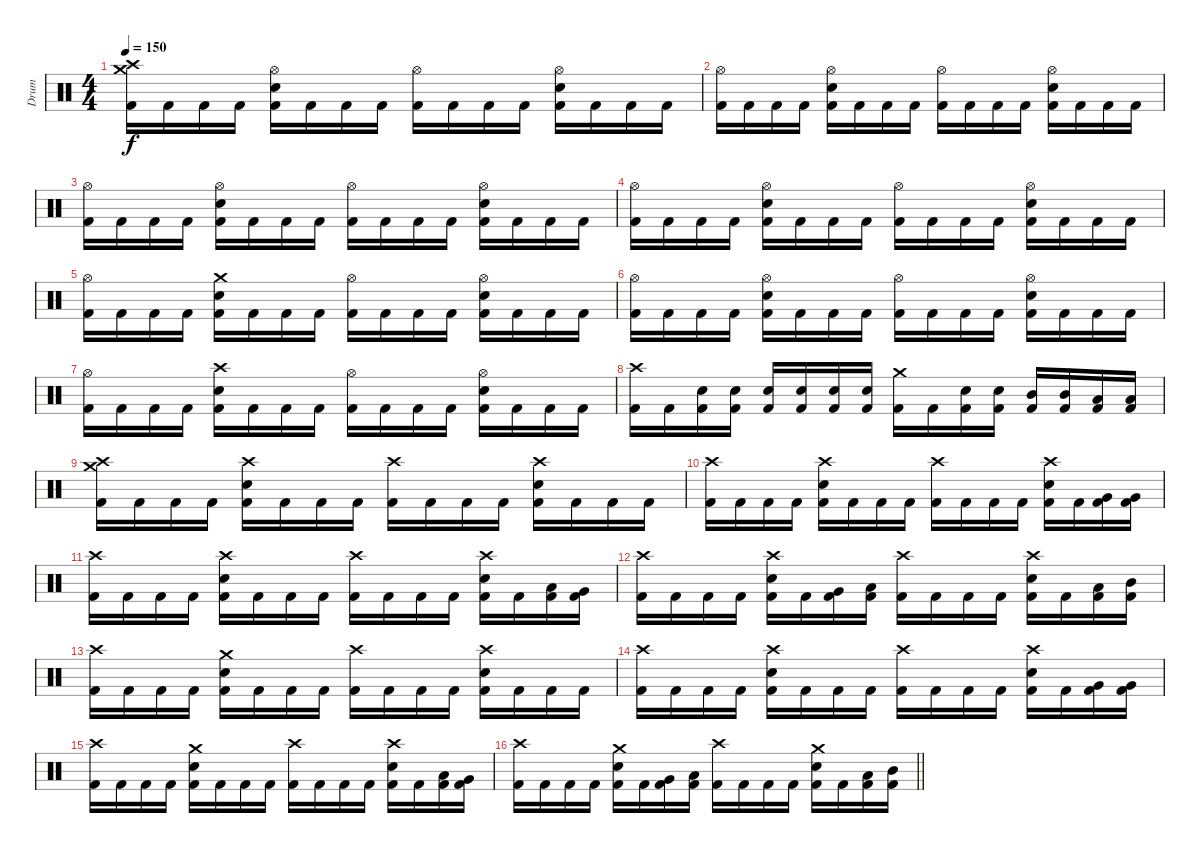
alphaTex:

\track ("Drum" "Drum") {instrument percussion}
\staff {score}
\articulation defaults
\ts (4 4)
\section ("" "")
\tempo 150
\clef neutral
\ks c
("Crash high (hit)" "Crash medium (hit)" "Kick (hit) 2").16{dy f} "Kick (hit) 2".16 "Kick (hit) 2".16 "Kick (hit) 2".16 ("Snare (hit) 2" "Hi-Hat (open)" "Kick (hit) 2").16 "Kick (hit) 2".16 "Kick (hit) 2".16 "Kick (hit) 2".16 ("Hi-Hat (open)" "Kick (hit) 2").16 "Kick (hit) 2".16 "Kick (hit) 2".16 "Kick (hit) 2".16 ("Snare (hit) 2" "Hi-Hat (open)" "Kick (hit) 2").16 "Kick (hit) 2".16 "Kick (hit) 2".16 "Kick (hit) 2".16 |
("Hi-Hat (open)" "Kick (hit) 2").16 "Kick (hit) 2".16 "Kick (hit) 2".16 "Kick (hit) 2".16 ("Snare (hit) 2" "Hi-Hat (open)" "Kick (hit) 2").16 "Kick (hit) 2".16 "Kick (hit) 2".16 "Kick (hit) 2".16 ("Hi-Hat (open)" "Kick (hit) 2").16 "Kick (hit) 2".16 "Kick (hit) 2".16 "Kick (hit) 2".16 ("Snare (hit) 2" "Hi-Hat (open)" "Kick (hit) 2").16 "Kick (hit) 2".16 "Kick (hit) 2".16 "Kick (hit) 2".16 |
("Hi-Hat (open)" "Kick (hit) 2").16 "Kick (hit) 2".16 "Kick (hit) 2".16 "Kick (hit) 2".16 ("Snare (hit) 2" "Hi-Hat (open)" "Kick (hit) 2").16 "Kick (hit) 2".16 "Kick (hit) 2".16 "Kick (hit) 2".16 ("Hi-Hat (open)" "Kick (hit) 2").16 "Kick (hit) 2".16 "Kick (hit) 2".16 "Kick (hit) 2".16 ("Snare (hit) 2" "Hi-Hat (open)" "Kick (hit) 2").16 "Kick (hit) 2".16 "Kick (hit) 2".16 "Kick (hit) 2".16 |
("Hi-Hat (open)" "Kick (hit) 2").16 "Kick (hit) 2".16 "Kick (hit) 2".16 "Kick (hit) 2".16 ("Snare (hit) 2" "Hi-Hat (open)" "Kick (hit) 2").16 "Kick (hit) 2".16 "Kick (hit) 2".16 "Kick (hit) 2".16 ("Hi-Hat (open)" "Kick (hit) 2").16 "Kick (hit) 2".16 "Kick (hit) 2".16 "Kick (hit) 2".16 ("Snare (hit) 2" "Hi-Hat (open)" "Kick (hit) 2").16 "Kick (hit) 2".16 "Kick (hit) 2".16 "Kick (hit) 2".16 |
("Hi-Hat (open)" "Kick (hit) 2").16 "Kick (hit) 2".16 "Kick (hit) 2".16 "Kick (hit) 2".16 ("Snare (hit) 2" "Crash medium (hit)" "Kick (hit) 2").16 "Kick (hit) 2".16 "Kick (hit) 2".16 "Kick (hit) 2".16 ("Hi-Hat (open)" "Kick (hit) 2").16 "Kick (hit) 2".16 "Kick (hit) 2".16 "Kick (hit) 2".16 ("Snare (hit) 2" "Hi-Hat (open)" "Kick (hit) 2").16 "Kick (hit) 2".16 "Kick (hit) 2".16 "Kick (hit) 2".16 |
("Hi-Hat (open)" "Kick (hit) 2").16 "Kick (hit) 2".16 "Kick (hit) 2".16 "Kick (hit) 2".16 ("Snare (hit) 2" "Hi-Hat (open)" "Kick (hit) 2").16 "Kick (hit) 2".16 "Kick (hit) 2".16 "Kick (hit) 2".16 ("Hi-Hat (open)" "Kick (hit) 2").16 "Kick (hit) 2".16 "Kick (hit) 2".16 "Kick (hit) 2".16 ("Snare (hit) 2" "Hi-Hat (open)" "Kick (hit) 2").16 "Kick (hit) 2".16 "Kick (hit) 2".16 "Kick (hit) 2".16 |
("Hi-Hat (open)" "Kick (hit) 2").16 "Kick (hit) 2".16 "Kick (hit) 2".16 "Kick (hit) 2".16 ("Snare (hit) 2" "Crash high (hit)" "Kick (hit) 2").16 "Kick (hit) 2".16 "Kick (hit) 2".16 "Kick (hit) 2".16 ("Hi-Hat (open)" "Kick (hit) 2").16 "Kick (hit) 2".16 "Kick (hit) 2".16 "Kick (hit) 2".16 ("Snare (hit) 2" "Hi-Hat (open)" "Kick (hit) 2").16 "Kick (hit) 2".16 "Kick (hit) 2".16 "Kick (hit) 2".16 |
("Crash high (hit)" "Kick (hit) 2").16 "Kick (hit) 2".16 ("Snare (hit) 2" "Kick (hit) 2").16 ("Snare (hit) 2" "Kick (hit) 2").16 ("Snare (hit) 2" "Kick (hit) 2").16 ("Snare (hit) 2" "Kick (hit) 2").16 ("Snare (hit) 2" "Kick (hit) 2").16 ("Snare (hit) 2" "Kick (hit) 2").16 ("Crash medium (hit)" "Kick (hit) 2").16 "Kick (hit) 2".16 ("Snare (hit) 2" "Kick (hit) 2").16 ("Snare (hit) 2" "Kick (hit) 2").16 ("Mid Tom (hit)" "Kick (hit) 2").16 ("Mid Tom (hit)" "Kick (hit) 2").16 ("Low Tom (hit)" "Kick (hit) 2").16 ("Low Tom (hit)" "Kick (hit) 2").16 |
("Crash high (hit)" "Crash medium (hit)" "Kick (hit) 2").16 "Kick (hit) 2".16 "Kick (hit) 2".16 "Kick (hit) 2".16 ("Snare (hit) 2" "Crash high (hit)" "Kick (hit) 2").16 "Kick (hit) 2".16 "Kick (hit) 2".16 "Kick (hit) 2".16 ("Crash high (hit)" "Kick (hit) 2").16 "Kick (hit) 2".16 "Kick (hit) 2".16 "Kick (hit) 2".16 ("Snare (hit) 2" "Crash high (hit)" "Kick (hit) 2").16 "Kick (hit) 2".16 "Kick (hit) 2".16 "Kick (hit) 2".16 |
("Crash high (hit)" "Kick (hit) 2").16 "Kick (hit) 2".16 "Kick (hit) 2".16 "Kick (hit) 2".16 ("Snare (hit) 2" "Crash high (hit)" "Kick (hit) 2").16 "Kick (hit) 2".16 "Kick (hit) 2".16 "Kick (hit) 2".16 ("Crash high (hit)" "Kick (hit) 2").16 "Kick (hit) 2".16 "Kick (hit) 2".16 "Kick (hit) 2".16 ("Snare (hit) 2" "Crash high (hit)" "Kick (hit) 2").16 "Kick (hit) 2".16 ("Very Low Tom (hit)" "Kick (hit) 2").16 ("Very Low Tom (hit)" "Kick (hit) 2").16 |
("Crash high (hit)" "Kick (hit) 2").16 "Kick (hit) 2".16 "Kick (hit) 2".16 "Kick (hit) 2".16 ("Snare (hit) 2" "Crash high (hit)" "Kick (hit) 2").16 "Kick (hit) 2".16 "Kick (hit) 2".16 "Kick (hit) 2".16 ("Crash high (hit)" "Kick (hit) 2").16 "Kick (hit) 2".16 "Kick (hit) 2".16 "Kick (hit) 2".16 ("Snare (hit) 2" "Crash high (hit)" "Kick (hit) 2").16 "Kick (hit) 2".16 ("Low Floor Tom (hit)" "Kick (hit) 2").16 ("Very Low Tom (hit)" "Kick (hit) 2").16 |
("Crash high (hit)" "Kick (hit) 2").16 "Kick (hit) 2".16 "Kick (hit) 2".16 "Kick (hit) 2".16 ("Snare (hit) 2" "Crash high (hit)" "Kick (hit) 2").16 "Kick (hit) 2".16 ("Very Low Tom (hit)" "Kick (hit) 2").16 ("Low Tom (hit)" "Kick (hit) 2").16 ("Crash high (hit)" "Kick (hit) 2").16 "Kick (hit) 2".16 "Kick (hit) 2".16 "Kick (hit) 2".16 ("Snare (hit) 2" "Crash high (hit)" "Kick (hit) 2").16 "Kick (hit) 2".16 ("Low Tom (hit)" "Kick (hit) 2").16 ("Mid Tom (hit)" "Kick (hit) 2").16 |
("Crash high (hit)" "Kick (hit) 2").16 "Kick (hit) 2".16 "Kick (hit) 2".16 "Kick (hit) 2".16 ("Snare (hit) 2" "Crash medium (hit)" "Kick (hit) 2").16 "Kick (hit) 2".16 "Kick (hit) 2".16 "Kick (hit) 2".16 ("Crash high (hit)" "Kick (hit) 2").16 "Kick (hit) 2".16 "Kick (hit) 2".16 "Kick (hit) 2".16 ("Snare (hit) 2" "Crash high (hit)" "Kick (hit) 2").16 "Kick (hit) 2".16 "Kick (hit) 2".16 "Kick (hit) 2".16 |
("Crash high (hit)" "Kick (hit) 2").16 "Kick (hit) 2".16 "Kick (hit) 2".16 "Kick (hit) 2".16 ("Snare (hit) 2" "Crash high (hit)" "Kick (hit) 2").16 "Kick (hit) 2".16 "Kick (hit) 2".16 "Kick (hit) 2".16 ("Crash high (hit)" "Kick (hit) 2").16 "Kick (hit) 2".16 "Kick (hit) 2".16 "Kick (hit) 2".16 ("Snare (hit) 2" "Crash high (hit)" "Kick (hit) 2").16 "Kick (hit) 2".16 ("Very Low Tom (hit)" "Kick (hit) 2").16 ("Very Low Tom (hit)" "Kick (hit) 2").16 |
("Crash high (hit)" "Kick (hit) 2").16 "Kick (hit) 2".16 "Kick (hit) 2".16 "Kick (hit) 2".16 ("Snare (hit) 2" "Crash medium (hit)" "Kick (hit) 2").16 "Kick (hit) 2".16 "Kick (hit) 2".16 "Kick (hit) 2".16 ("Crash high (hit)" "Kick (hit) 2").16 "Kick (hit) 2".16 "Kick (hit) 2".16 "Kick (hit) 2".16 ("Snare (hit) 2" "Crash high (hit)" "Kick (hit) 2").16 "Kick (hit) 2".16 ("Low Floor Tom (hit)" "Kick (hit) 2").16 ("Very Low Tom (hit)" "Kick (hit) 2").16 |
\barLineRight lightlight
("Crash high (hit)" "Kick (hit) 2").16 "Kick (hit) 2".16 "Kick (hit) 2".16 "Kick (hit) 2".16 ("Snare (hit) 2" "Crash medium (hit)" "Kick (hit) 2").16 "Kick (hit) 2".16 ("Very Low Tom (hit)" "Kick (hit) 2").16 ("Low Tom (hit)" "Kick (hit) 2").16 ("Crash high (hit)" "Kick (hit) 2").16 "Kick (hit) 2".16 "Kick (hit) 2".16 "Kick (hit) 2".16 ("Snare (hit) 2" "Crash medium (hit)" "Kick (hit) 2").16 "Kick (hit) 2".16 ("Low Tom (hit)" "Kick (hit) 2").16 ("Mid Tom (hit)" "Kick (hit) 2").16
